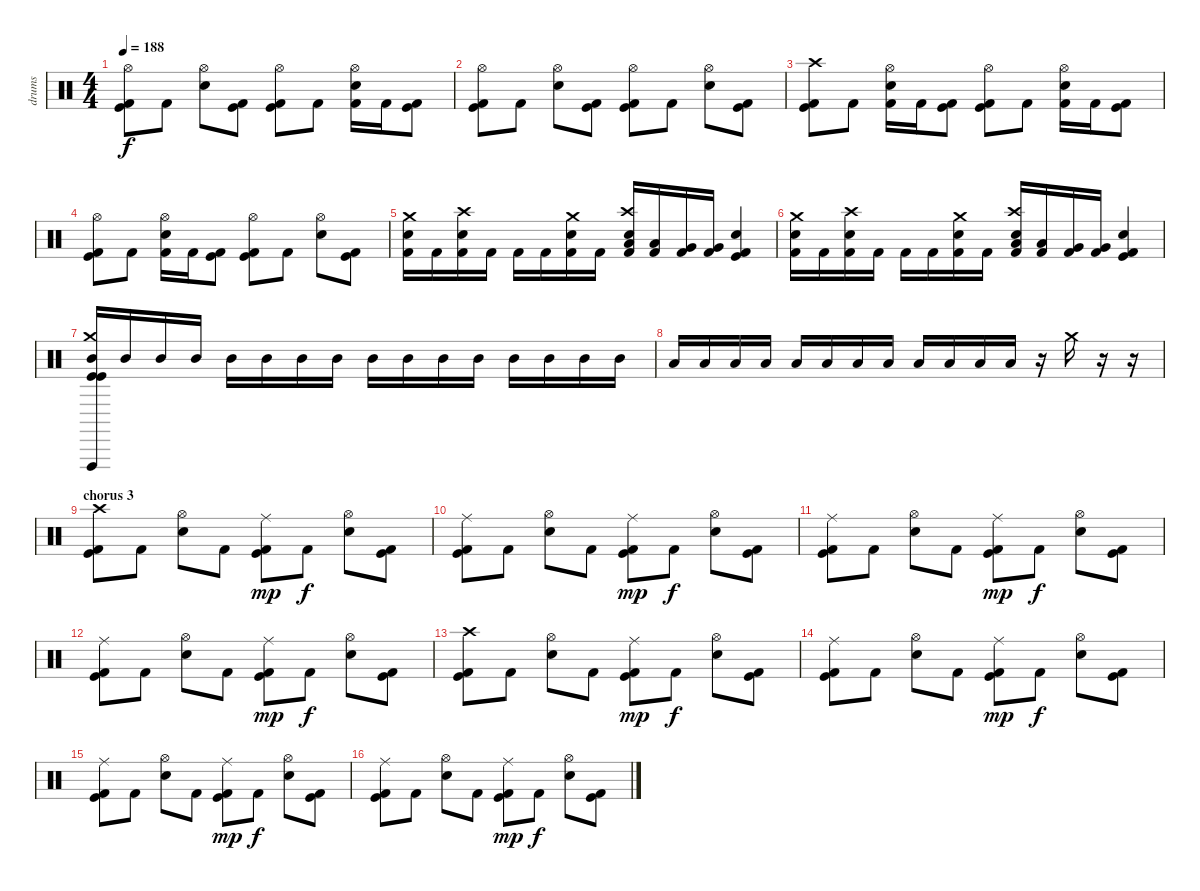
\track ("drums" "drums") {instrument percussion}
\staff {score}
\articulation defaults
\ts (4 4)
\tempo 188
\clef neutral
\ks c
("Hi-Hat (open)" "Kick (hit)" "Kick (hit) 2").8{dy f} "Kick (hit) 2".8 ("Hi-Hat (open)" "Snare (hit) 2").8 ("Kick (hit)" "Kick (hit) 2").8 ("Hi-Hat (open)" "Kick (hit)" "Kick (hit) 2").8 "Kick (hit) 2".8 ("Hi-Hat (open)" "Snare (hit) 2" "Kick (hit) 2").16 "Kick (hit) 2".16 ("Kick (hit)" "Kick (hit) 2").8 |
("Hi-Hat (open)" "Kick (hit)" "Kick (hit) 2").8 "Kick (hit) 2".8 ("Hi-Hat (open)" "Snare (hit) 2").8 ("Kick (hit)" "Kick (hit) 2").8 ("Hi-Hat (open)" "Kick (hit)" "Kick (hit) 2").8 "Kick (hit) 2".8 ("Hi-Hat (open)" "Snare (hit) 2").8 ("Kick (hit)" "Kick (hit) 2").8 |
("Crash high (hit)" "Kick (hit)" "Kick (hit) 2").8 "Kick (hit) 2".8 ("Hi-Hat (open)" "Snare (hit) 2" "Kick (hit) 2").16 "Kick (hit) 2".16 ("Kick (hit)" "Kick (hit) 2").8 ("Hi-Hat (open)" "Kick (hit)" "Kick (hit) 2").8 "Kick (hit) 2".8 ("Hi-Hat (open)" "Snare (hit) 2" "Kick (hit) 2").16 "Kick (hit) 2".16 ("Kick (hit)" "Kick (hit) 2").8 |
("Hi-Hat (open)" "Kick (hit)" "Kick (hit) 2").8 "Kick (hit) 2".8 ("Hi-Hat (open)" "Snare (hit) 2" "Kick (hit) 2").16 "Kick (hit) 2".16 ("Kick (hit)" "Kick (hit) 2").8 ("Hi-Hat (open)" "Kick (hit)" "Kick (hit) 2").8 "Kick (hit) 2".8 ("Hi-Hat (open)" "Snare (hit) 2").8 ("Kick (hit)" "Kick (hit) 2").8 |
("Crash medium (hit)" "Snare (hit) 2" "Kick (hit) 2").16 "Kick (hit) 2".16 ("Crash high (hit)" "Snare (hit) 2" "Kick (hit) 2").16 "Kick (hit) 2".16 "Kick (hit) 2".16 "Kick (hit) 2".16 ("Crash medium (hit)" "Snare (hit) 2" "Kick (hit) 2").16 "Kick (hit) 2".16 ("Crash high (hit)" "Snare (hit) 2" "Low Tom (hit)" "Kick (hit) 2").16 ("Low Tom (hit)" "Kick (hit) 2").16 ("Very Low Tom (hit)" "Kick (hit) 2").16 ("Very Low Tom (hit)" "Kick (hit) 2").16 ("Snare (hit) 2" "Kick (hit)" "Kick (hit) 2").4 |
("Crash medium (hit)" "Snare (hit) 2" "Kick (hit) 2").16 "Kick (hit) 2".16 ("Crash high (hit)" "Snare (hit) 2" "Kick (hit) 2").16 "Kick (hit) 2".16 "Kick (hit) 2".16 "Kick (hit) 2".16 ("Crash medium (hit)" "Snare (hit) 2" "Kick (hit) 2").16 "Kick (hit) 2".16 ("Crash high (hit)" "Snare (hit) 2" "Low Tom (hit)" "Kick (hit) 2").16 ("Low Tom (hit)" "Kick (hit) 2").16 ("Very Low Tom (hit)" "Kick (hit) 2").16 ("Very Low Tom (hit)" "Kick (hit) 2").16 ("Snare (hit) 2" "Kick (hit)" "Kick (hit) 2").4 |
("Vibraslap (hit)" "Crash medium (hit)" "Mid Tom (hit)" "Kick (hit)" "Kick (hit)").16 "Mid Tom (hit)".16 "Mid Tom (hit)".16 "Mid Tom (hit)".16 "Mid Tom (hit)".16 "Mid Tom (hit)".16 "Mid Tom (hit)".16 "Mid Tom (hit)".16 "Mid Tom (hit)".16 "Mid Tom (hit)".16 "Mid Tom (hit)".16 "Mid Tom (hit)".16 "Mid Tom (hit)".16 "Mid Tom (hit)".16 "Mid Tom (hit)".16 "Mid Tom (hit)".16 |
"Low Tom (hit)".16 "Low Tom (hit)".16 "Low Tom (hit)".16 "Low Tom (hit)".16 "Low Tom (hit)".16 "Low Tom (hit)".16 "Low Tom (hit)".16 "Low Tom (hit)".16 "Low Tom (hit)".16 "Low Tom (hit)".16 "Low Tom (hit)".16 "Low Tom (hit)".16 r.16 "Crash medium (hit)".16 r.16 r.16 |
\section ("" "chorus 3")
("Crash high (hit)" "Kick (hit)" "Kick (hit) 2").8 "Kick (hit) 2".8 ("Hi-Hat (open)" "Snare (hit) 2").8 "Kick (hit) 2".8 ("Ride (middle)" "Kick (hit)" "Kick (hit) 2").8{dy mp} "Kick (hit) 2".8{dy f} ("Hi-Hat (open)" "Snare (hit) 2").8 ("Kick (hit)" "Kick (hit) 2").8 |
("Ride (middle)" "Kick (hit)" "Kick (hit) 2").8 "Kick (hit) 2".8 ("Hi-Hat (open)" "Snare (hit) 2").8 "Kick (hit) 2".8 ("Ride (middle)" "Kick (hit)" "Kick (hit) 2").8{dy mp} "Kick (hit) 2".8{dy f} ("Hi-Hat (open)" "Snare (hit) 2").8 ("Kick (hit)" "Kick (hit) 2").8 |
("Ride (middle)" "Kick (hit)" "Kick (hit) 2").8 "Kick (hit) 2".8 ("Hi-Hat (open)" "Snare (hit) 2").8 "Kick (hit) 2".8 ("Ride (middle)" "Kick (hit)" "Kick (hit) 2").8{dy mp} "Kick (hit) 2".8{dy f} ("Hi-Hat (open)" "Snare (hit) 2").8 ("Kick (hit)" "Kick (hit) 2").8 |
("Ride (middle)" "Kick (hit)" "Kick (hit) 2").8 "Kick (hit) 2".8 ("Hi-Hat (open)" "Snare (hit) 2").8 "Kick (hit) 2".8 ("Ride (middle)" "Kick (hit)" "Kick (hit) 2").8{dy mp} "Kick (hit) 2".8{dy f} ("Hi-Hat (open)" "Snare (hit) 2").8 ("Kick (hit)" "Kick (hit) 2").8 |
("Crash high (hit)" "Kick (hit)" "Kick (hit) 2").8 "Kick (hit) 2".8 ("Hi-Hat (open)" "Snare (hit) 2").8 "Kick (hit) 2".8 ("Ride (middle)" "Kick (hit)" "Kick (hit) 2").8{dy mp} "Kick (hit) 2".8{dy f} ("Hi-Hat (open)" "Snare (hit) 2").8 ("Kick (hit)" "Kick (hit) 2").8 |
("Ride (middle)" "Kick (hit)" "Kick (hit) 2").8 "Kick (hit) 2".8 ("Hi-Hat (open)" "Snare (hit) 2").8 "Kick (hit) 2".8 ("Ride (middle)" "Kick (hit)" "Kick (hit) 2").8{dy mp} "Kick (hit) 2".8{dy f} ("Hi-Hat (open)" "Snare (hit) 2").8 ("Kick (hit)" "Kick (hit) 2").8 |
("Ride (middle)" "Kick (hit)" "Kick (hit) 2").8 "Kick (hit) 2".8 ("Hi-Hat (open)" "Snare (hit) 2").8 "Kick (hit) 2".8 ("Ride (middle)" "Kick (hit)" "Kick (hit) 2").8{dy mp} "Kick (hit) 2".8{dy f} ("Hi-Hat (open)" "Snare (hit) 2").8 ("Kick (hit)" "Kick (hit) 2").8 |
("Ride (middle)" "Kick (hit)" "Kick (hit) 2").8 "Kick (hit) 2".8 ("Hi-Hat (open)" "Snare (hit) 2").8 "Kick (hit) 2".8 ("Ride (middle)" "Kick (hit)" "Kick (hit) 2").8{dy mp} "Kick (hit) 2".8{dy f} ("Hi-Hat (open)" "Snare (hit) 2").8 ("Kick (hit)" "Kick (hit) 2").8
